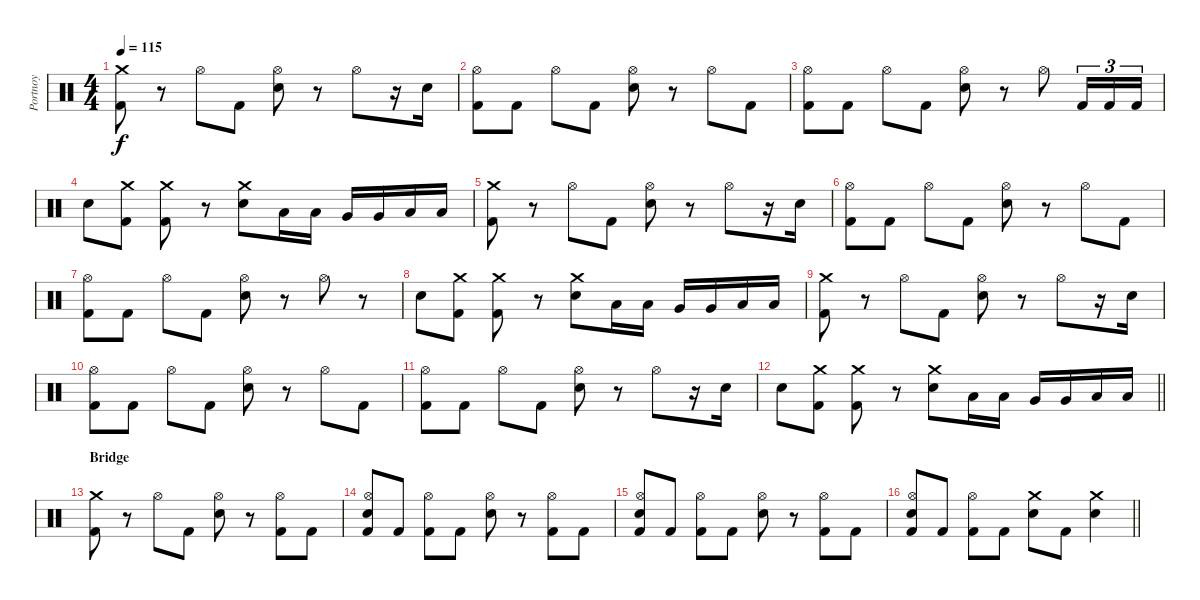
\track ("Portnoy" "Portnoy") {instrument percussion}
\staff {score}
\articulation defaults
\ts (4 4)
\tempo 115
\clef neutral
\ks c
("Crash medium (hit)" "Kick (hit) 2").8{dy f} r.8 "Hi-Hat (open)".8 "Kick (hit) 2".8 ("Hi-Hat (open)" "Snare (hit) 2").8 r.8 "Hi-Hat (open)".8 r.16 "Snare (hit) 2".16 |
("Hi-Hat (open)" "Kick (hit) 2").8 "Kick (hit) 2".8 "Hi-Hat (open)".8 "Kick (hit) 2".8 ("Hi-Hat (open)" "Snare (hit) 2").8 r.8 "Hi-Hat (open)".8 "Kick (hit) 2".8 |
("Hi-Hat (open)" "Kick (hit) 2").8 "Kick (hit) 2".8 "Hi-Hat (open)".8 "Kick (hit) 2".8 ("Hi-Hat (open)" "Snare (hit) 2").8 r.8 "Hi-Hat (open)".8 "Kick (hit) 2".16{tu (3 2)} "Kick (hit) 2".16{tu (3 2)} "Kick (hit) 2".16{tu (3 2)} |
"Snare (hit) 2".8 ("Crash medium (hit)" "Kick (hit) 2").8 ("Crash medium (hit)" "Kick (hit) 2").8 r.8 ("Crash medium (hit)" "Snare (hit) 2").8 "Low Tom (hit)".16 "Low Tom (hit)".16 "Very Low Tom (hit)".16 "Very Low Tom (hit)".16 "Low Floor Tom (hit)".16 "Low Floor Tom (hit)".16 |
("Crash medium (hit)" "Kick (hit) 2").8 r.8 "Hi-Hat (open)".8 "Kick (hit) 2".8 ("Hi-Hat (open)" "Snare (hit) 2").8 r.8 "Hi-Hat (open)".8 r.16 "Snare (hit) 2".16 |
("Hi-Hat (open)" "Kick (hit) 2").8 "Kick (hit) 2".8 "Hi-Hat (open)".8 "Kick (hit) 2".8 ("Hi-Hat (open)" "Snare (hit) 2").8 r.8 "Hi-Hat (open)".8 "Kick (hit) 2".8 |
("Hi-Hat (open)" "Kick (hit) 2").8 "Kick (hit) 2".8 "Hi-Hat (open)".8 "Kick (hit) 2".8 ("Hi-Hat (open)" "Snare (hit) 2").8 r.8 "Hi-Hat (open)".8 r.8 |
"Snare (hit) 2".8 ("Crash medium (hit)" "Kick (hit) 2").8 ("Crash medium (hit)" "Kick (hit) 2").8 r.8 ("Crash medium (hit)" "Snare (hit) 2").8 "Low Tom (hit)".16 "Low Tom (hit)".16 "Very Low Tom (hit)".16 "Very Low Tom (hit)".16 "Low Floor Tom (hit)".16 "Low Floor Tom (hit)".16 |
("Crash medium (hit)" "Kick (hit) 2").8 r.8 "Hi-Hat (open)".8 "Kick (hit) 2".8 ("Hi-Hat (open)" "Snare (hit) 2").8 r.8 "Hi-Hat (open)".8 r.16 "Snare (hit) 2".16 |
("Hi-Hat (open)" "Kick (hit) 2").8 "Kick (hit) 2".8 "Hi-Hat (open)".8 "Kick (hit) 2".8 ("Hi-Hat (open)" "Snare (hit) 2").8 r.8 "Hi-Hat (open)".8 "Kick (hit) 2".8 |
("Hi-Hat (open)" "Kick (hit) 2").8 "Kick (hit) 2".8 "Hi-Hat (open)".8 "Kick (hit) 2".8 ("Hi-Hat (open)" "Snare (hit) 2").8 r.8 "Hi-Hat (open)".8 r.16 "Snare (hit) 2".16 |
\barLineRight lightlight "Snare (hit) 2".8
("Crash medium (hit)" "Kick (hit) 2").8 ("Crash medium (hit)" "Kick (hit) 2").8 r.8 ("Crash medium (hit)" "Snare (hit) 2").8 "Low Tom (hit)".16 "Low Tom (hit)".16 "Very Low Tom (hit)".16 "Very Low Tom (hit)".16 "Low Floor Tom (hit)".16 "Low Floor Tom (hit)".16 |
\section ("" "Bridge")
("Crash medium (hit)" "Kick (hit) 2").8 r.8 "Hi-Hat (open)".8 "Kick (hit) 2".8 ("Hi-Hat (open)" "Snare (hit) 2").8 r.8 ("Hi-Hat (open)" "Kick (hit) 2").8 "Kick (hit) 2".8 |
("Hi-Hat (open)" "Snare (hit) 2" "Kick (hit) 2").8 "Kick (hit) 2".8 ("Hi-Hat (open)" "Kick (hit) 2").8 "Kick (hit) 2".8 ("Hi-Hat (open)" "Snare (hit) 2").8 r.8 ("Hi-Hat (open)" "Kick (hit) 2").8 "Kick (hit) 2".8 |
("Hi-Hat (open)" "Snare (hit) 2" "Kick (hit) 2").8 "Kick (hit) 2".8 ("Hi-Hat (open)" "Kick (hit) 2").8 "Kick (hit) 2".8 ("Hi-Hat (open)" "Snare (hit) 2").8 r.8 ("Hi-Hat (open)" "Kick (hit) 2").8 "Kick (hit) 2".8 |
\barLineRight lightlight
("Hi-Hat (open)" "Snare (hit) 2" "Kick (hit) 2").8 "Kick (hit) 2".8 ("Hi-Hat (open)" "Kick (hit) 2").8 "Kick (hit) 2".8 ("Crash medium (hit)" "Snare (hit) 2").8 "Kick (hit) 2".8 ("Crash medium (hit)" "Snare (hit) 2").4
